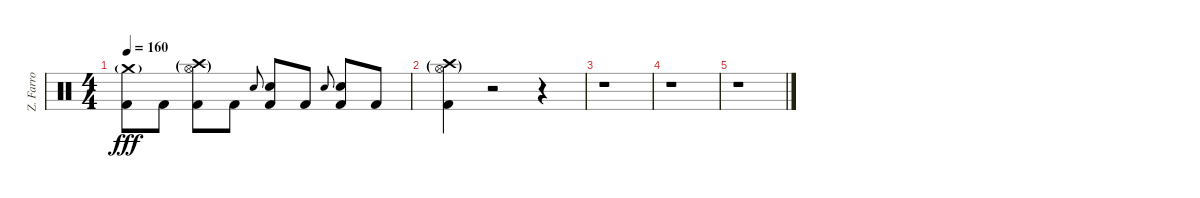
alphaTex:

\track ("Z. Farro" "Z. Farro") {instrument percussion}
\staff {score}
\articulation defaults
\ts (4 4)
\tempo 160
\clef neutral
\ks c
("Crash medium (hit)"{g} "Kick (hit) 2").8{dy fff} "Kick (hit) 2".8 ("Crash high (hit)"{g} "Hi-Hat (open)"{g} "Kick (hit) 2").8 "Kick (hit) 2".8 "Electric Snare (hit)".8{gr onbeat} ("Electric Snare (hit)" "Kick (hit) 2").8 "Kick (hit) 2".8 "Electric Snare (hit)".8{gr onbeat} ("Electric Snare (hit)" "Kick (hit) 2").8 "Kick (hit) 2".8 |
("Crash high (hit)"{g} "Hi-Hat (open)"{g} "Kick (hit) 2").4 r.2 r.4 |
r.1 |
r.1 |
r.1
